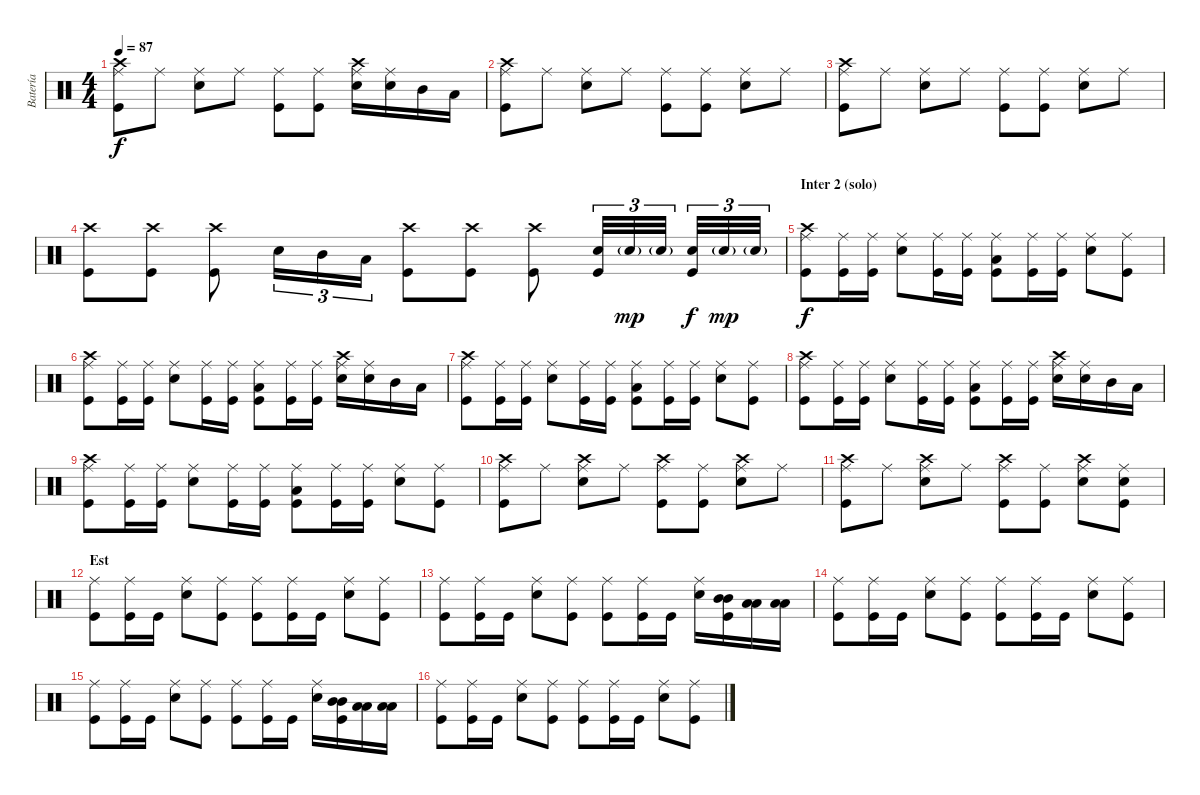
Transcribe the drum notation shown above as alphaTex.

\track ("Batería" "Batería") {instrument percussion}
\staff {score}
\articulation defaults
\ts (4 4)
\tempo 87
\clef neutral
\ks c
("Crash high (hit)" "Ride (middle)" "Kick (hit)").8{dy f} "Ride (middle)".8 ("Ride (middle)" "Snare (hit) 2").8 "Ride (middle)".8 ("Ride (middle)" "Kick (hit)").8 ("Ride (middle)" "Kick (hit)").8 ("Crash high (hit)" "Ride (middle)" "Snare (hit) 2").16 ("Ride (middle)" "Snare (hit) 2").16 "Mid Tom (hit)".16 "Low Tom (hit)".16 |
("Crash high (hit)" "Ride (middle)" "Kick (hit)").8 "Ride (middle)".8 ("Ride (middle)" "Snare (hit) 2").8 "Ride (middle)".8 ("Ride (middle)" "Kick (hit)").8 ("Ride (middle)" "Kick (hit)").8 ("Ride (middle)" "Snare (hit) 2").8 "Ride (middle)".8 |
("Crash high (hit)" "Ride (middle)" "Kick (hit)").8 "Ride (middle)".8 ("Ride (middle)" "Snare (hit) 2").8 "Ride (middle)".8 ("Ride (middle)" "Kick (hit)").8 ("Ride (middle)" "Kick (hit)").8 ("Ride (middle)" "Snare (hit) 2").8 "Ride (middle)".8 |
("Crash high (hit)" "Kick (hit)").8 ("Crash high (hit)" "Kick (hit)").8 ("Crash high (hit)" "Kick (hit)").8 "Snare (hit) 2".16{tu (3 2)} "Mid Tom (hit)".16{tu (3 2)} "Low Tom (hit)".16{tu (3 2)} ("Crash high (hit)" "Kick (hit)").8 ("Crash high (hit)" "Kick (hit)").8 ("Crash high (hit)" "Kick (hit)").8 ("Snare (hit) 2" "Kick (hit)").32{tu (3 2)} "Snare (hit) 2"{g}.32{tu (3 2) dy mp} "Snare (hit) 2"{g}.32{tu (3 2)} ("Snare (hit) 2" "Kick (hit)").32{tu (3 2) dy f} "Snare (hit) 2"{g}.32{tu (3 2) dy mp} "Snare (hit) 2"{g}.32{tu (3 2)} |
\section ("" "Inter 2 (solo)")
("Crash high (hit)" "Ride (middle)" "Kick (hit)").8{dy f} ("Ride (middle)" "Kick (hit)").16 ("Ride (middle)" "Kick (hit)").16 ("Ride (middle)" "Snare (hit) 2").8 ("Ride (middle)" "Kick (hit)").16 ("Ride (middle)" "Kick (hit)").16 ("Ride (middle)" "Low Tom (hit)" "Kick (hit)").8 ("Ride (middle)" "Kick (hit)").16 ("Ride (middle)" "Kick (hit)").16 ("Ride (middle)" "Snare (hit) 2").8 ("Ride (middle)" "Kick (hit)").8 |
("Crash high (hit)" "Ride (middle)" "Kick (hit)").8 ("Ride (middle)" "Kick (hit)").16 ("Ride (middle)" "Kick (hit)").16 ("Ride (middle)" "Snare (hit) 2").8 ("Ride (middle)" "Kick (hit)").16 ("Ride (middle)" "Kick (hit)").16 ("Ride (middle)" "Low Tom (hit)" "Kick (hit)").8 ("Ride (middle)" "Kick (hit)").16 ("Ride (middle)" "Kick (hit)").16 ("Crash high (hit)" "Ride (middle)" "Snare (hit) 2").16 ("Ride (middle)" "Snare (hit) 2").16 "Mid Tom (hit)".16 "Low Tom (hit)".16 |
("Crash high (hit)" "Ride (middle)" "Kick (hit)").8 ("Ride (middle)" "Kick (hit)").16 ("Ride (middle)" "Kick (hit)").16 ("Ride (middle)" "Snare (hit) 2").8 ("Ride (middle)" "Kick (hit)").16 ("Ride (middle)" "Kick (hit)").16 ("Ride (middle)" "Low Tom (hit)" "Kick (hit)").8 ("Ride (middle)" "Kick (hit)").16 ("Ride (middle)" "Kick (hit)").16 ("Ride (middle)" "Snare (hit) 2").8 ("Ride (middle)" "Kick (hit)").8 |
("Crash high (hit)" "Ride (middle)" "Kick (hit)").8 ("Ride (middle)" "Kick (hit)").16 ("Ride (middle)" "Kick (hit)").16 ("Ride (middle)" "Snare (hit) 2").8 ("Ride (middle)" "Kick (hit)").16 ("Ride (middle)" "Kick (hit)").16 ("Ride (middle)" "Low Tom (hit)" "Kick (hit)").8 ("Ride (middle)" "Kick (hit)").16 ("Ride (middle)" "Kick (hit)").16 ("Crash high (hit)" "Ride (middle)" "Snare (hit) 2").16 ("Ride (middle)" "Snare (hit) 2").16 "Mid Tom (hit)".16 "Low Tom (hit)".16 |
("Crash high (hit)" "Ride (middle)" "Kick (hit)").8 ("Ride (middle)" "Kick (hit)").16 ("Ride (middle)" "Kick (hit)").16 ("Ride (middle)" "Snare (hit) 2").8 ("Ride (middle)" "Kick (hit)").16 ("Ride (middle)" "Kick (hit)").16 ("Ride (middle)" "Low Tom (hit)" "Kick (hit)").8 ("Ride (middle)" "Kick (hit)").16 ("Ride (middle)" "Kick (hit)").16 ("Ride (middle)" "Snare (hit) 2").8 ("Ride (middle)" "Kick (hit)").8 |
("Crash high (hit)" "Ride (middle)" "Kick (hit)").8 "Ride (middle)".8 ("Crash high (hit)" "Ride (middle)" "Snare (hit) 2").8 "Ride (middle)".8 ("Crash high (hit)" "Ride (middle)" "Kick (hit)").8 ("Ride (middle)" "Kick (hit)").8 ("Crash high (hit)" "Ride (middle)" "Snare (hit) 2").8 "Ride (middle)".8 |
("Crash high (hit)" "Ride (middle)" "Kick (hit)").8 "Ride (middle)".8 ("Crash high (hit)" "Ride (middle)" "Snare (hit) 2").8 "Ride (middle)".8 ("Crash high (hit)" "Ride (middle)" "Kick (hit)").8 ("Ride (middle)" "Kick (hit)").8 ("Crash high (hit)" "Ride (middle)" "Snare (hit) 2").8 ("Ride (middle)" "Snare (hit) 2" "Kick (hit)").8 |
\section ("" "Est")
("Ride (middle)" "Kick (hit)").8 ("Ride (middle)" "Kick (hit)").16 "Kick (hit)".16 ("Ride (middle)" "Snare (hit) 2").8 ("Ride (middle)" "Kick (hit)").8 ("Ride (middle)" "Kick (hit)").8 ("Ride (middle)" "Kick (hit)").16 "Kick (hit)".16 ("Ride (middle)" "Snare (hit) 2").8 ("Ride (middle)" "Kick (hit)").8 |
("Ride (middle)" "Kick (hit)").8 ("Ride (middle)" "Kick (hit)").16 "Kick (hit)".16 ("Ride (middle)" "Snare (hit) 2").8 ("Ride (middle)" "Kick (hit)").8 ("Ride (middle)" "Kick (hit)").8 ("Ride (middle)" "Kick (hit)").16 "Kick (hit)".16 ("Ride (middle)" "Snare (hit) 2").16 ("Mid Tom (hit)" "Mid Tom (hit)" "Kick (hit)").16 ("Low Tom (hit)" "Low Tom (hit)").16 ("Low Floor Tom (hit)" "Low Floor Tom (hit)").16 |
("Ride (middle)" "Kick (hit)").8 ("Ride (middle)" "Kick (hit)").16 "Kick (hit)".16 ("Ride (middle)" "Snare (hit) 2").8 ("Ride (middle)" "Kick (hit)").8 ("Ride (middle)" "Kick (hit)").8 ("Ride (middle)" "Kick (hit)").16 "Kick (hit)".16 ("Ride (middle)" "Snare (hit) 2").8 ("Ride (middle)" "Kick (hit)").8 |
("Ride (middle)" "Kick (hit)").8 ("Ride (middle)" "Kick (hit)").16 "Kick (hit)".16 ("Ride (middle)" "Snare (hit) 2").8 ("Ride (middle)" "Kick (hit)").8 ("Ride (middle)" "Kick (hit)").8 ("Ride (middle)" "Kick (hit)").16 "Kick (hit)".16 ("Ride (middle)" "Snare (hit) 2").16 ("Mid Tom (hit)" "Mid Tom (hit)" "Kick (hit)").16 ("Low Tom (hit)" "Low Tom (hit)").16 ("Low Floor Tom (hit)" "Low Floor Tom (hit)").16 |
("Ride (middle)" "Kick (hit)").8 ("Ride (middle)" "Kick (hit)").16 "Kick (hit)".16 ("Ride (middle)" "Snare (hit) 2").8 ("Ride (middle)" "Kick (hit)").8 ("Ride (middle)" "Kick (hit)").8 ("Ride (middle)" "Kick (hit)").16 "Kick (hit)".16 ("Ride (middle)" "Snare (hit) 2").8 ("Ride (middle)" "Kick (hit)").8
